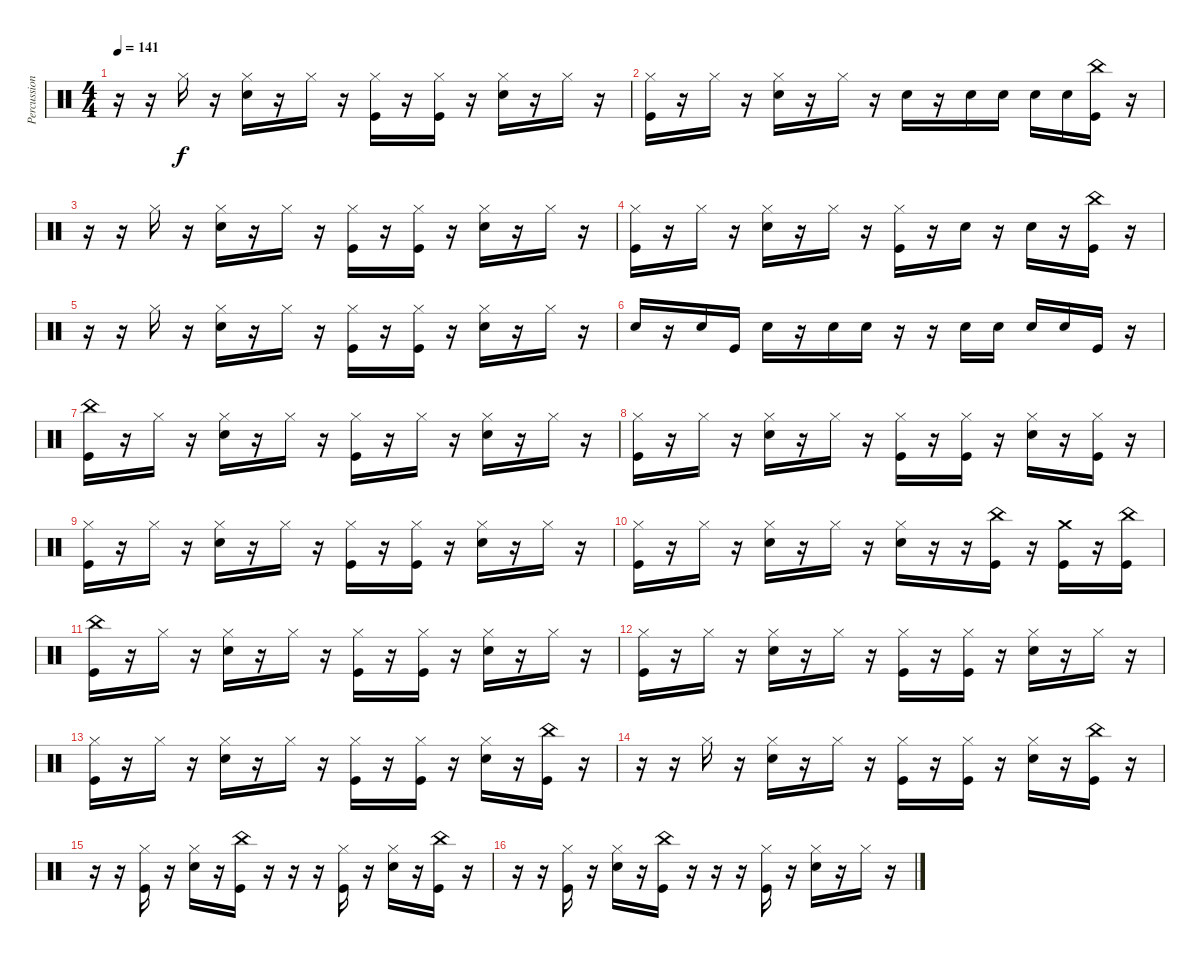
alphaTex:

\track ("Percussion" "Percussion") {instrument percussion}
\staff {score}
\articulation defaults
\ts (4 4)
\tempo 141
\clef neutral
\ks c
r.16{dy f} r.16 "Hi-Hat (closed)".16 r.16 ("Hi-Hat (closed)" "Electric Snare (hit)").16 r.16 "Hi-Hat (closed)".16 r.16 ("Hi-Hat (closed)" "Kick (hit)").16 r.16 ("Hi-Hat (closed)" "Kick (hit)").16 r.16 ("Hi-Hat (closed)" "Electric Snare (hit)").16 r.16 "Hi-Hat (closed)".16 r.16 |
("Hi-Hat (closed)" "Kick (hit)").16 r.16 "Hi-Hat (closed)".16 r.16 ("Hi-Hat (closed)" "Electric Snare (hit)").16 r.16 "Hi-Hat (closed)".16 r.16 "Electric Snare (hit)".16 r.16 "Electric Snare (hit)".16 "Electric Snare (hit)".16 "Electric Snare (hit)".16 "Electric Snare (hit)".16 ("China (hit)" "Kick (hit)").16 r.16 |
r.16 r.16 "Hi-Hat (closed)".16 r.16 ("Hi-Hat (closed)" "Electric Snare (hit)").16 r.16 "Hi-Hat (closed)".16 r.16 ("Hi-Hat (closed)" "Kick (hit)").16 r.16 ("Hi-Hat (closed)" "Kick (hit)").16 r.16 ("Hi-Hat (closed)" "Electric Snare (hit)").16 r.16 "Hi-Hat (closed)".16 r.16 |
("Hi-Hat (closed)" "Kick (hit)").16 r.16 "Hi-Hat (closed)".16 r.16 ("Hi-Hat (closed)" "Electric Snare (hit)").16 r.16 "Hi-Hat (closed)".16 r.16 ("Hi-Hat (closed)" "Kick (hit)").16 r.16 "Electric Snare (hit)".16 r.16 "Electric Snare (hit)".16 r.16 ("China (hit)" "Kick (hit)").16 r.16 |
r.16 r.16 "Hi-Hat (closed)".16 r.16 ("Hi-Hat (closed)" "Electric Snare (hit)").16 r.16 "Hi-Hat (closed)".16 r.16 ("Hi-Hat (closed)" "Kick (hit)").16 r.16 ("Hi-Hat (closed)" "Kick (hit)").16 r.16 ("Hi-Hat (closed)" "Electric Snare (hit)").16 r.16 "Hi-Hat (closed)".16 r.16 |
"Electric Snare (hit)".16 r.16 "Electric Snare (hit)".16 "Kick (hit)".16 "Electric Snare (hit)".16 r.16 "Electric Snare (hit)".16 "Electric Snare (hit)".16 r.16 r.16 "Electric Snare (hit)".16 "Electric Snare (hit)".16 "Electric Snare (hit)".16 "Electric Snare (hit)".16 "Kick (hit)".16 r.16 |
("China (hit)" "Kick (hit)").16 r.16 "Hi-Hat (closed)".16 r.16 ("Hi-Hat (closed)" "Electric Snare (hit)").16 r.16 "Hi-Hat (closed)".16 r.16 ("Hi-Hat (closed)" "Kick (hit)").16 r.16 "Hi-Hat (closed)".16 r.16 ("Hi-Hat (closed)" "Electric Snare (hit)").16 r.16 "Hi-Hat (closed)".16 r.16 |
("Hi-Hat (closed)" "Kick (hit)").16 r.16 "Hi-Hat (closed)".16 r.16 ("Hi-Hat (closed)" "Electric Snare (hit)").16 r.16 "Hi-Hat (closed)".16 r.16 ("Hi-Hat (closed)" "Kick (hit)").16 r.16 ("Hi-Hat (closed)" "Kick (hit)").16 r.16 ("Hi-Hat (closed)" "Electric Snare (hit)").16 r.16 ("Hi-Hat (closed)" "Kick (hit)").16 r.16 |
("Hi-Hat (closed)" "Kick (hit)").16 r.16 "Hi-Hat (closed)".16 r.16 ("Hi-Hat (closed)" "Electric Snare (hit)").16 r.16 "Hi-Hat (closed)".16 r.16 ("Hi-Hat (closed)" "Kick (hit)").16 r.16 ("Hi-Hat (closed)" "Kick (hit)").16 r.16 ("Hi-Hat (closed)" "Electric Snare (hit)").16 r.16 "Hi-Hat (closed)".16 r.16 |
("Hi-Hat (closed)" "Kick (hit)").16 r.16 "Hi-Hat (closed)".16 r.16 ("Hi-Hat (closed)" "Electric Snare (hit)").16 r.16 "Hi-Hat (closed)".16 r.16 ("Hi-Hat (closed)" "Electric Snare (hit)").16 r.16 r.16 ("China (hit)" "Kick (hit)").16 r.16 ("Crash medium (hit)" "Kick (hit)").16 r.16 ("China (hit)" "Kick (hit)").16 |
("China (hit)" "Kick (hit)").16 r.16 "Hi-Hat (closed)".16 r.16 ("Hi-Hat (closed)" "Electric Snare (hit)").16 r.16 "Hi-Hat (closed)".16 r.16 ("Hi-Hat (closed)" "Kick (hit)").16 r.16 ("Hi-Hat (closed)" "Kick (hit)").16 r.16 ("Hi-Hat (closed)" "Electric Snare (hit)").16 r.16 "Hi-Hat (closed)".16 r.16 |
("Hi-Hat (closed)" "Kick (hit)").16 r.16 "Hi-Hat (closed)".16 r.16 ("Hi-Hat (closed)" "Electric Snare (hit)").16 r.16 "Hi-Hat (closed)".16 r.16 ("Hi-Hat (closed)" "Kick (hit)").16 r.16 ("Hi-Hat (closed)" "Kick (hit)").16 r.16 ("Hi-Hat (closed)" "Electric Snare (hit)").16 r.16 "Hi-Hat (closed)".16 r.16 |
("Hi-Hat (closed)" "Kick (hit)").16 r.16 "Hi-Hat (closed)".16 r.16 ("Hi-Hat (closed)" "Electric Snare (hit)").16 r.16 "Hi-Hat (closed)".16 r.16 ("Hi-Hat (closed)" "Kick (hit)").16 r.16 ("Hi-Hat (closed)" "Kick (hit)").16 r.16 ("Hi-Hat (closed)" "Electric Snare (hit)").16 r.16 ("China (hit)" "Kick (hit)").16 r.16 |
r.16 r.16 "Hi-Hat (closed)".16 r.16 ("Hi-Hat (closed)" "Electric Snare (hit)").16 r.16 "Hi-Hat (closed)".16 r.16 ("Hi-Hat (closed)" "Kick (hit)").16 r.16 ("Hi-Hat (closed)" "Kick (hit)").16 r.16 ("Hi-Hat (closed)" "Electric Snare (hit)").16 r.16 ("China (hit)" "Kick (hit)").16 r.16 |
r.16 r.16 ("Hi-Hat (closed)" "Kick (hit)").16 r.16 ("Hi-Hat (closed)" "Electric Snare (hit)").16 r.16 ("China (hit)" "Kick (hit)").16 r.16 r.16 r.16 ("Hi-Hat (closed)" "Kick (hit)").16 r.16 ("Hi-Hat (closed)" "Electric Snare (hit)").16 r.16 ("China (hit)" "Kick (hit)").16 r.16 |
r.16 r.16 ("Hi-Hat (closed)" "Kick (hit)").16 r.16 ("Hi-Hat (closed)" "Electric Snare (hit)").16 r.16 ("China (hit)" "Kick (hit)").16 r.16 r.16 r.16 ("Hi-Hat (closed)" "Kick (hit)").16 r.16 ("Hi-Hat (closed)" "Electric Snare (hit)").16 r.16 "Hi-Hat (closed)".16 r.16
